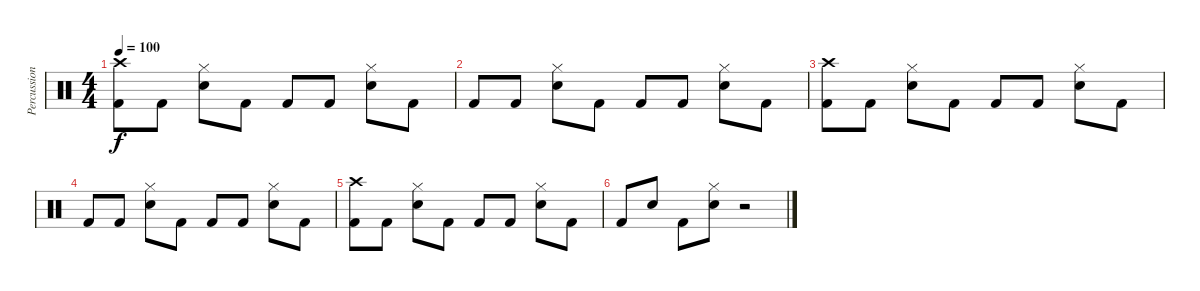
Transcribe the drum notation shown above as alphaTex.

\track ("Percussion" "Percussion") {instrument percussion}
\staff {score}
\articulation defaults
\ts (4 4)
\tempo 100
\clef neutral
\ks c
("Crash high (hit)" "Kick (hit) 2").8{dy f} "Kick (hit) 2".8 ("Hi-Hat (closed)" "Electric Snare (hit)").8 "Kick (hit) 2".8 "Kick (hit) 2".8 "Kick (hit) 2".8 ("Hi-Hat (closed)" "Electric Snare (hit)").8 "Kick (hit) 2".8 |
"Kick (hit) 2".8 "Kick (hit) 2".8 ("Hi-Hat (closed)" "Electric Snare (hit)").8 "Kick (hit) 2".8 "Kick (hit) 2".8 "Kick (hit) 2".8 ("Hi-Hat (closed)" "Electric Snare (hit)").8 "Kick (hit) 2".8 |
("Crash high (hit)" "Kick (hit) 2").8 "Kick (hit) 2".8 ("Hi-Hat (closed)" "Electric Snare (hit)").8 "Kick (hit) 2".8 "Kick (hit) 2".8 "Kick (hit) 2".8 ("Hi-Hat (closed)" "Electric Snare (hit)").8 "Kick (hit) 2".8 |
"Kick (hit) 2".8 "Kick (hit) 2".8 ("Hi-Hat (closed)" "Electric Snare (hit)").8 "Kick (hit) 2".8 "Kick (hit) 2".8 "Kick (hit) 2".8 ("Hi-Hat (closed)" "Electric Snare (hit)").8 "Kick (hit) 2".8 |
("Crash high (hit)" "Kick (hit) 2").8 "Kick (hit) 2".8 ("Hi-Hat (closed)" "Electric Snare (hit)").8 "Kick (hit) 2".8 "Kick (hit) 2".8 "Kick (hit) 2".8 ("Hi-Hat (closed)" "Electric Snare (hit)").8 "Kick (hit) 2".8 |
"Kick (hit) 2".8 "Electric Snare (hit)".8 "Kick (hit) 2".8 ("Hi-Hat (closed)" "Electric Snare (hit)").8 r.2
